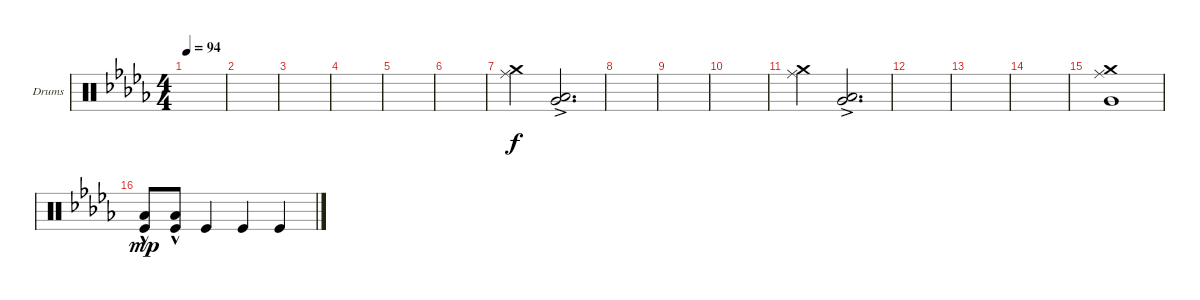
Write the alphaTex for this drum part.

\bracketExtendMode groupsimilarinstruments
\firstSystemTrackNameOrientation horizontal
\otherSystemsTrackNameOrientation horizontal
\track ("Drumkit" "Drums") {instrument percussion}
\staff {score}
\articulation defaults
\ts (4 4)
\tempo 94
\clef neutral
\ks bbminor
|
|
|
|
|
|
("Crash medium (hit)" "Ride (middle)").4 ("Low Tom (hit)"{ac} "Very Low Tom (hit)"{ac}).2{d} |
|
|
|
("Crash medium (hit)" "Ride (middle)").4 ("Low Tom (hit)"{ac} "Very Low Tom (hit)"{ac}).2{d} |
|
|
|
("Crash medium (hit)" "Ride (middle)" "Very Low Tom (hit)").1 |
("Kick (hit)" "Low Tom (hit)"{hac}).8{dy mp} ("Kick (hit)" "Low Tom (hit)"{hac}).8 "Kick (hit)".4 "Kick (hit)".4 "Kick (hit)".4
